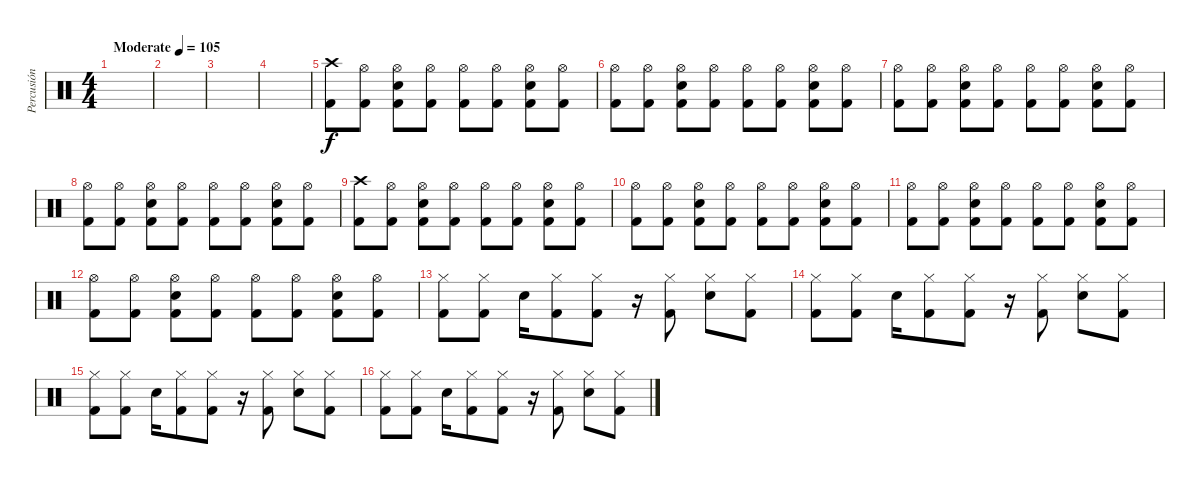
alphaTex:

\track ("Percusión" "Percusión") {instrument percussion}
\staff {score}
\articulation defaults
\ts (4 4)
\tempo (105 "Moderate")
\clef neutral
\ks c
|
|
|
|
("Crash high (hit)" "Kick (hit) 2").8 ("Hi-Hat (open)" "Kick (hit) 2").8 ("Hi-Hat (open)" "Electric Snare (hit)" "Kick (hit) 2").8 ("Hi-Hat (open)" "Kick (hit) 2").8 ("Hi-Hat (open)" "Kick (hit) 2").8 ("Hi-Hat (open)" "Kick (hit) 2").8 ("Hi-Hat (open)" "Electric Snare (hit)" "Kick (hit) 2").8 ("Hi-Hat (open)" "Kick (hit) 2").8 |
("Hi-Hat (open)" "Kick (hit) 2").8 ("Hi-Hat (open)" "Kick (hit) 2").8 ("Hi-Hat (open)" "Electric Snare (hit)" "Kick (hit) 2").8 ("Hi-Hat (open)" "Kick (hit) 2").8 ("Hi-Hat (open)" "Kick (hit) 2").8 ("Hi-Hat (open)" "Kick (hit) 2").8 ("Hi-Hat (open)" "Electric Snare (hit)" "Kick (hit) 2").8 ("Hi-Hat (open)" "Kick (hit) 2").8 |
("Hi-Hat (open)" "Kick (hit) 2").8 ("Hi-Hat (open)" "Kick (hit) 2").8 ("Hi-Hat (open)" "Electric Snare (hit)" "Kick (hit) 2").8 ("Hi-Hat (open)" "Kick (hit) 2").8 ("Hi-Hat (open)" "Kick (hit) 2").8 ("Hi-Hat (open)" "Kick (hit) 2").8 ("Hi-Hat (open)" "Electric Snare (hit)" "Kick (hit) 2").8 ("Hi-Hat (open)" "Kick (hit) 2").8 |
("Hi-Hat (open)" "Kick (hit) 2").8 ("Hi-Hat (open)" "Kick (hit) 2").8 ("Hi-Hat (open)" "Electric Snare (hit)" "Kick (hit) 2").8 ("Hi-Hat (open)" "Kick (hit) 2").8 ("Hi-Hat (open)" "Kick (hit) 2").8 ("Hi-Hat (open)" "Kick (hit) 2").8 ("Hi-Hat (open)" "Electric Snare (hit)" "Kick (hit) 2").8 ("Hi-Hat (open)" "Kick (hit) 2").8 |
("Crash high (hit)" "Kick (hit) 2").8 ("Hi-Hat (open)" "Kick (hit) 2").8 ("Hi-Hat (open)" "Electric Snare (hit)" "Kick (hit) 2").8 ("Hi-Hat (open)" "Kick (hit) 2").8 ("Hi-Hat (open)" "Kick (hit) 2").8 ("Hi-Hat (open)" "Kick (hit) 2").8 ("Hi-Hat (open)" "Electric Snare (hit)" "Kick (hit) 2").8 ("Hi-Hat (open)" "Kick (hit) 2").8 |
("Hi-Hat (open)" "Kick (hit) 2").8 ("Hi-Hat (open)" "Kick (hit) 2").8 ("Hi-Hat (open)" "Electric Snare (hit)" "Kick (hit) 2").8 ("Hi-Hat (open)" "Kick (hit) 2").8 ("Hi-Hat (open)" "Kick (hit) 2").8 ("Hi-Hat (open)" "Kick (hit) 2").8 ("Hi-Hat (open)" "Electric Snare (hit)" "Kick (hit) 2").8 ("Hi-Hat (open)" "Kick (hit) 2").8 |
("Hi-Hat (open)" "Kick (hit) 2").8 ("Hi-Hat (open)" "Kick (hit) 2").8 ("Hi-Hat (open)" "Electric Snare (hit)" "Kick (hit) 2").8 ("Hi-Hat (open)" "Kick (hit) 2").8 ("Hi-Hat (open)" "Kick (hit) 2").8 ("Hi-Hat (open)" "Kick (hit) 2").8 ("Hi-Hat (open)" "Electric Snare (hit)" "Kick (hit) 2").8 ("Hi-Hat (open)" "Kick (hit) 2").8 |
("Hi-Hat (open)" "Kick (hit) 2").8 ("Hi-Hat (open)" "Kick (hit) 2").8 ("Hi-Hat (open)" "Electric Snare (hit)" "Kick (hit) 2").8 ("Hi-Hat (open)" "Kick (hit) 2").8 ("Hi-Hat (open)" "Kick (hit) 2").8 ("Hi-Hat (open)" "Kick (hit) 2").8 ("Hi-Hat (open)" "Electric Snare (hit)" "Kick (hit) 2").8 ("Hi-Hat (open)" "Kick (hit) 2").8 |
("Hi-Hat (closed)" "Kick (hit) 2").8 ("Hi-Hat (closed)" "Kick (hit) 2").8 "Electric Snare (hit)".16 ("Hi-Hat (closed)" "Kick (hit) 2").8 ("Hi-Hat (closed)" "Kick (hit) 2").8 r.16 ("Hi-Hat (closed)" "Kick (hit) 2").8 ("Hi-Hat (closed)" "Electric Snare (hit)").8 ("Hi-Hat (closed)" "Kick (hit) 2").8 |
("Hi-Hat (closed)" "Kick (hit) 2").8 ("Hi-Hat (closed)" "Kick (hit) 2").8 "Electric Snare (hit)".16 ("Hi-Hat (closed)" "Kick (hit) 2").8 ("Hi-Hat (closed)" "Kick (hit) 2").8 r.16 ("Hi-Hat (closed)" "Kick (hit) 2").8 ("Hi-Hat (closed)" "Electric Snare (hit)").8 ("Hi-Hat (closed)" "Kick (hit) 2").8 |
("Hi-Hat (closed)" "Kick (hit) 2").8 ("Hi-Hat (closed)" "Kick (hit) 2").8 "Electric Snare (hit)".16 ("Hi-Hat (closed)" "Kick (hit) 2").8 ("Hi-Hat (closed)" "Kick (hit) 2").8 r.16 ("Hi-Hat (closed)" "Kick (hit) 2").8 ("Hi-Hat (closed)" "Electric Snare (hit)").8 ("Hi-Hat (closed)" "Kick (hit) 2").8 |
("Hi-Hat (closed)" "Kick (hit) 2").8 ("Hi-Hat (closed)" "Kick (hit) 2").8 "Electric Snare (hit)".16 ("Hi-Hat (closed)" "Kick (hit) 2").8 ("Hi-Hat (closed)" "Kick (hit) 2").8 r.16 ("Hi-Hat (closed)" "Kick (hit) 2").8 ("Hi-Hat (closed)" "Electric Snare (hit)").8 ("Hi-Hat (closed)" "Kick (hit) 2").8
